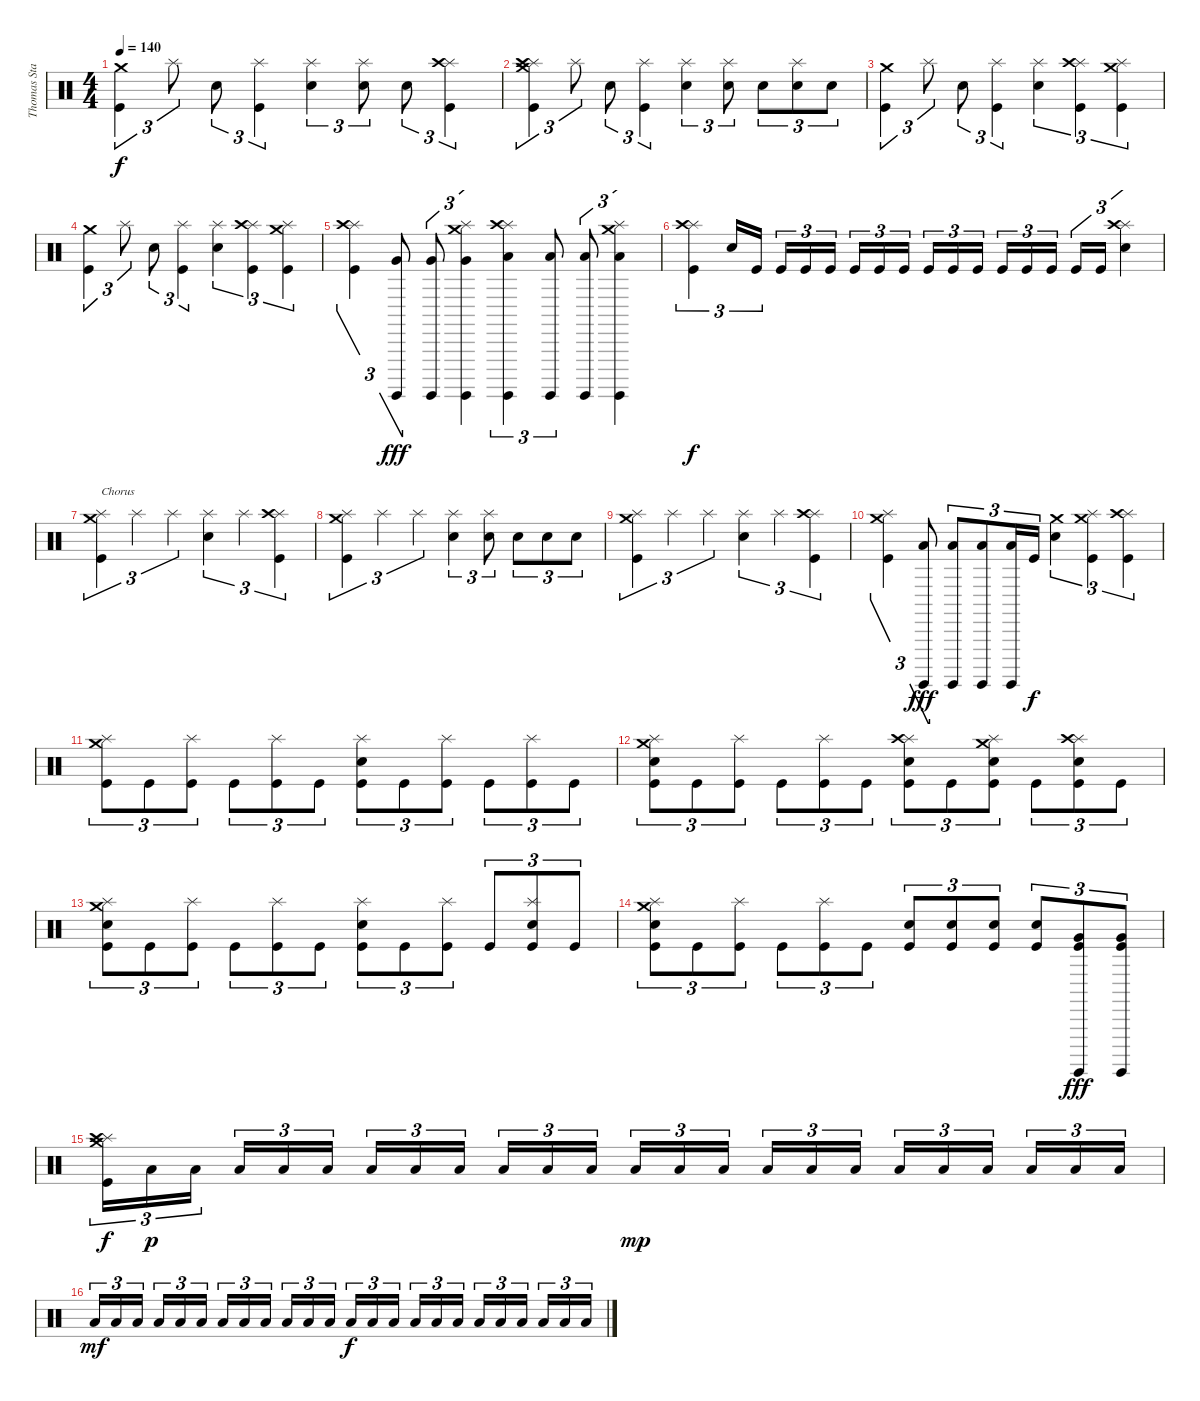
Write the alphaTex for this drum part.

\track ("Thomas Stauch" "Thomas Sta") {instrument percussion}
\staff {score}
\articulation defaults
\ts (4 4)
\tempo 140
\clef neutral
\ks c
("Crash medium (hit)" "Kick (hit)").4{tu (3 2) dy f} "Splash (hit)".8{tu (3 2)} "Electric Snare (hit)".8{tu (3 2)} ("Splash (hit)" "Kick (hit)").4{tu (3 2)} ("Splash (hit)" "Electric Snare (hit)").4{tu (3 2)} ("Splash (hit)" "Electric Snare (hit)").8{tu (3 2)} "Electric Snare (hit)".8{tu (3 2)} ("Splash (hit)" "Crash high (hit)" "Kick (hit)").4{tu (3 2)} |
("Crash medium (hit)" "Splash (hit)" "Crash high (hit)" "Kick (hit)").4{tu (3 2)} "Splash (hit)".8{tu (3 2)} "Electric Snare (hit)".8{tu (3 2)} ("Splash (hit)" "Kick (hit)").4{tu (3 2)} ("Splash (hit)" "Electric Snare (hit)").4{tu (3 2)} ("Splash (hit)" "Electric Snare (hit)").8{tu (3 2)} "Electric Snare (hit)".8{tu (3 2)} ("Splash (hit)" "Electric Snare (hit)").8{tu (3 2)} "Electric Snare (hit)".8{tu (3 2)} |
("Crash medium (hit)" "Kick (hit)").4{tu (3 2)} "Splash (hit)".8{tu (3 2)} "Electric Snare (hit)".8{tu (3 2)} ("Splash (hit)" "Kick (hit)").4{tu (3 2)} ("Splash (hit)" "Electric Snare (hit)").4{tu (3 2)} ("Splash (hit)" "Crash high (hit)" "Kick (hit)").4{tu (3 2)} ("Crash medium (hit)" "Splash (hit)" "Kick (hit)").4{tu (3 2)} |
("Crash medium (hit)" "Kick (hit)").4{tu (3 2)} "Splash (hit)".8{tu (3 2)} "Electric Snare (hit)".8{tu (3 2)} ("Splash (hit)" "Kick (hit)").4{tu (3 2)} ("Splash (hit)" "Electric Snare (hit)").4{tu (3 2)} ("Splash (hit)" "Crash high (hit)" "Kick (hit)").4{tu (3 2)} ("Crash medium (hit)" "Splash (hit)" "Kick (hit)").4{tu (3 2)} |
("Splash (hit)" "Crash high (hit)" "Kick (hit)").4{tu (3 2)} ("Surdo (hit)" "Very Low Tom (hit)").8{tu (3 2) dy fff} ("Surdo (hit)" "Very Low Tom (hit)").8{tu (3 2)} ("Crash medium (hit)" "Splash (hit)" "Surdo (hit)" "Very Low Tom (hit)").4{tu (3 2)} ("Splash (hit)" "Crash high (hit)" "Surdo (hit)" "Low Floor Tom (hit)").4{tu (3 2)} ("Surdo (hit)" "Low Floor Tom (hit)").8{tu (3 2)} ("Surdo (hit)" "Low Floor Tom (hit)").8{tu (3 2)} ("Crash medium (hit)" "Splash (hit)" "Surdo (hit)" "Low Floor Tom (hit)").4{tu (3 2)} |
("Splash (hit)" "Crash high (hit)" "Kick (hit)").4{tu (3 2) dy f} "Electric Snare (hit)".16{tu (3 2)} "Kick (hit)".16{tu (3 2)} "Kick (hit)".16{tu (3 2)} "Kick (hit)".16{tu (3 2)} "Kick (hit)".16{tu (3 2)} "Kick (hit)".16{tu (3 2)} "Kick (hit)".16{tu (3 2)} "Kick (hit)".16{tu (3 2)} "Kick (hit)".16{tu (3 2)} "Kick (hit)".16{tu (3 2)} "Kick (hit)".16{tu (3 2)} "Kick (hit)".16{tu (3 2)} "Kick (hit)".16{tu (3 2)} "Kick (hit)".16{tu (3 2)} "Kick (hit)".16{tu (3 2)} "Kick (hit)".16{tu (3 2)} ("Splash (hit)" "Crash high (hit)" "Electric Snare (hit)").4{tu (3 2)} |
("Crash medium (hit)" "Splash (hit)" "Kick (hit)").4{tu (3 2) txt "Chorus"} "Splash (hit)".4{tu (3 2)} "Splash (hit)".4{tu (3 2)} ("Splash (hit)" "Electric Snare (hit)").4{tu (3 2)} "Splash (hit)".4{tu (3 2)} ("Splash (hit)" "Crash high (hit)" "Kick (hit)").4{tu (3 2)} |
("Crash medium (hit)" "Splash (hit)" "Kick (hit)").4{tu (3 2)} "Splash (hit)".4{tu (3 2)} "Splash (hit)".4{tu (3 2)} ("Splash (hit)" "Electric Snare (hit)").4{tu (3 2)} ("Splash (hit)" "Electric Snare (hit)").8{tu (3 2)} "Electric Snare (hit)".8{tu (3 2)} "Electric Snare (hit)".8{tu (3 2)} "Electric Snare (hit)".8{tu (3 2)} |
("Crash medium (hit)" "Splash (hit)" "Kick (hit)").4{tu (3 2)} "Splash (hit)".4{tu (3 2)} "Splash (hit)".4{tu (3 2)} ("Splash (hit)" "Electric Snare (hit)").4{tu (3 2)} "Splash (hit)".4{tu (3 2)} ("Splash (hit)" "Crash high (hit)" "Kick (hit)").4{tu (3 2)} |
("Crash medium (hit)" "Splash (hit)" "Kick (hit)").4{tu (3 2)} ("Surdo (hit)" "Low Floor Tom (hit)").8{tu (3 2) dy fff} ("Surdo (hit)" "Low Floor Tom (hit)").8{tu (3 2)} ("Surdo (hit)" "Low Floor Tom (hit)").8{tu (3 2)} ("Surdo (hit)" "Low Floor Tom (hit)").16{tu (3 2)} "Kick (hit)".16{tu (3 2) dy f} ("Crash medium (hit)" "Electric Snare (hit)").4{tu (3 2)} ("Crash medium (hit)" "Splash (hit)" "Kick (hit)").4{tu (3 2)} ("Splash (hit)" "Crash high (hit)" "Kick (hit)").4{tu (3 2)} |
("Crash medium (hit)" "Splash (hit)" "Kick (hit)").8{tu (3 2)} "Kick (hit)".8{tu (3 2)} ("Splash (hit)" "Kick (hit)").8{tu (3 2)} "Kick (hit)".8{tu (3 2)} ("Splash (hit)" "Kick (hit)").8{tu (3 2)} "Kick (hit)".8{tu (3 2)} ("Splash (hit)" "Electric Snare (hit)" "Kick (hit)").8{tu (3 2)} "Kick (hit)".8{tu (3 2)} ("Splash (hit)" "Kick (hit)").8{tu (3 2)} "Kick (hit)".8{tu (3 2)} ("Splash (hit)" "Kick (hit)").8{tu (3 2)} "Kick (hit)".8{tu (3 2)} |
("Crash medium (hit)" "Splash (hit)" "Electric Snare (hit)" "Kick (hit)").8{tu (3 2)} "Kick (hit)".8{tu (3 2)} ("Splash (hit)" "Kick (hit)").8{tu (3 2)} "Kick (hit)".8{tu (3 2)} ("Splash (hit)" "Kick (hit)").8{tu (3 2)} "Kick (hit)".8{tu (3 2)} ("Splash (hit)" "Crash high (hit)" "Electric Snare (hit)" "Kick (hit)").8{tu (3 2)} "Kick (hit)".8{tu (3 2)} ("Crash medium (hit)" "Splash (hit)" "Electric Snare (hit)" "Kick (hit)").8{tu (3 2)} "Kick (hit)".8{tu (3 2)} ("Splash (hit)" "Crash high (hit)" "Electric Snare (hit)" "Kick (hit)").8{tu (3 2)} "Kick (hit)".8{tu (3 2)} |
("Crash medium (hit)" "Splash (hit)" "Electric Snare (hit)" "Kick (hit)").8{tu (3 2)} "Kick (hit)".8{tu (3 2)} ("Splash (hit)" "Kick (hit)").8{tu (3 2)} "Kick (hit)".8{tu (3 2)} ("Splash (hit)" "Kick (hit)").8{tu (3 2)} "Kick (hit)".8{tu (3 2)} ("Splash (hit)" "Electric Snare (hit)" "Kick (hit)").8{tu (3 2)} "Kick (hit)".8{tu (3 2)} ("Splash (hit)" "Kick (hit)").8{tu (3 2)} "Kick (hit)".8{tu (3 2)} ("Splash (hit)" "Electric Snare (hit)" "Kick (hit)").8{tu (3 2)} "Kick (hit)".8{tu (3 2)} |
("Crash medium (hit)" "Splash (hit)" "Electric Snare (hit)" "Kick (hit)").8{tu (3 2)} "Kick (hit)".8{tu (3 2)} ("Splash (hit)" "Kick (hit)").8{tu (3 2)} "Kick (hit)".8{tu (3 2)} ("Splash (hit)" "Kick (hit)").8{tu (3 2)} "Kick (hit)".8{tu (3 2)} ("Electric Snare (hit)" "Kick (hit)").8{tu (3 2)} ("Electric Snare (hit)" "Kick (hit)").8{tu (3 2)} ("Electric Snare (hit)" "Kick (hit)").8{tu (3 2)} ("Electric Snare (hit)" "Kick (hit)").8{tu (3 2)} ("Surdo (hit)" "Very Low Tom (hit)" "Kick (hit)").8{tu (3 2) dy fff} ("Surdo (hit)" "Very Low Tom (hit)" "Kick (hit)").8{tu (3 2)} |
("Crash medium (hit)" "Splash (hit)" "Crash high (hit)" "Kick (hit)").16{tu (3 2) dy f} "Low Floor Tom (hit)".16{tu (3 2) dy p} "Low Floor Tom (hit)".16{tu (3 2)} "Low Floor Tom (hit)".16{tu (3 2)} "Low Floor Tom (hit)".16{tu (3 2)} "Low Floor Tom (hit)".16{tu (3 2)} "Low Floor Tom (hit)".16{tu (3 2)} "Low Floor Tom (hit)".16{tu (3 2)} "Low Floor Tom (hit)".16{tu (3 2)} "Low Floor Tom (hit)".16{tu (3 2)} "Low Floor Tom (hit)".16{tu (3 2)} "Low Floor Tom (hit)".16{tu (3 2)} "Low Floor Tom (hit)".16{tu (3 2) dy mp} "Low Floor Tom (hit)".16{tu (3 2)} "Low Floor Tom (hit)".16{tu (3 2)} "Low Floor Tom (hit)".16{tu (3 2)} "Low Floor Tom (hit)".16{tu (3 2)} "Low Floor Tom (hit)".16{tu (3 2)} "Low Floor Tom (hit)".16{tu (3 2)} "Low Floor Tom (hit)".16{tu (3 2)} "Low Floor Tom (hit)".16{tu (3 2)} "Low Floor Tom (hit)".16{tu (3 2)} "Low Floor Tom (hit)".16{tu (3 2)} "Low Floor Tom (hit)".16{tu (3 2)} |
"Low Floor Tom (hit)".16{tu (3 2) dy mf} "Low Floor Tom (hit)".16{tu (3 2)} "Low Floor Tom (hit)".16{tu (3 2)} "Low Floor Tom (hit)".16{tu (3 2)} "Low Floor Tom (hit)".16{tu (3 2)} "Low Floor Tom (hit)".16{tu (3 2)} "Low Floor Tom (hit)".16{tu (3 2)} "Low Floor Tom (hit)".16{tu (3 2)} "Low Floor Tom (hit)".16{tu (3 2)} "Low Floor Tom (hit)".16{tu (3 2)} "Low Floor Tom (hit)".16{tu (3 2)} "Low Floor Tom (hit)".16{tu (3 2)} "Low Floor Tom (hit)".16{tu (3 2) dy f} "Low Floor Tom (hit)".16{tu (3 2)} "Low Floor Tom (hit)".16{tu (3 2)} "Low Floor Tom (hit)".16{tu (3 2)} "Low Floor Tom (hit)".16{tu (3 2)} "Low Floor Tom (hit)".16{tu (3 2)} "Low Floor Tom (hit)".16{tu (3 2)} "Low Floor Tom (hit)".16{tu (3 2)} "Low Floor Tom (hit)".16{tu (3 2)} "Low Floor Tom (hit)".16{tu (3 2)} "Low Floor Tom (hit)".16{tu (3 2)} "Low Floor Tom (hit)".16{tu (3 2)}
